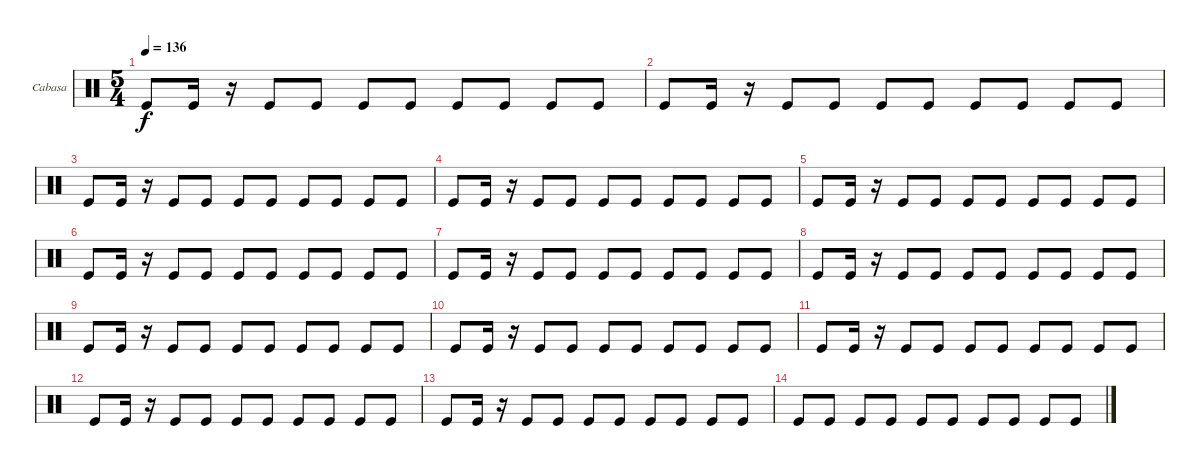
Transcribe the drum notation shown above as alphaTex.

\bracketExtendMode groupsimilarinstruments
\firstSystemTrackNameOrientation horizontal
\otherSystemsTrackNameOrientation horizontal
\track ("Cabasa" "Cabasa") {instrument percussion}
\staff {score}
\articulation defaults
\ts (5 4)
\tempo 136
\clef neutral
\ks c "Kick (hit)".8{dy f} "Kick (hit)".16
r.16 "Kick (hit)".8 "Kick (hit)".8 "Kick (hit)".8 "Kick (hit)".8 "Kick (hit)".8 "Kick (hit)".8 "Kick (hit)".8 "Kick (hit)".8 |
"Kick (hit)".8 "Kick (hit)".16 r.16 "Kick (hit)".8 "Kick (hit)".8 "Kick (hit)".8 "Kick (hit)".8 "Kick (hit)".8 "Kick (hit)".8 "Kick (hit)".8 "Kick (hit)".8 |
"Kick (hit)".8 "Kick (hit)".16 r.16 "Kick (hit)".8 "Kick (hit)".8 "Kick (hit)".8 "Kick (hit)".8 "Kick (hit)".8 "Kick (hit)".8 "Kick (hit)".8 "Kick (hit)".8 |
"Kick (hit)".8 "Kick (hit)".16 r.16 "Kick (hit)".8 "Kick (hit)".8 "Kick (hit)".8 "Kick (hit)".8 "Kick (hit)".8 "Kick (hit)".8 "Kick (hit)".8 "Kick (hit)".8 |
"Kick (hit)".8 "Kick (hit)".16 r.16 "Kick (hit)".8 "Kick (hit)".8 "Kick (hit)".8 "Kick (hit)".8 "Kick (hit)".8 "Kick (hit)".8 "Kick (hit)".8 "Kick (hit)".8 |
"Kick (hit)".8 "Kick (hit)".16 r.16 "Kick (hit)".8 "Kick (hit)".8 "Kick (hit)".8 "Kick (hit)".8 "Kick (hit)".8 "Kick (hit)".8 "Kick (hit)".8 "Kick (hit)".8 |
"Kick (hit)".8 "Kick (hit)".16 r.16 "Kick (hit)".8 "Kick (hit)".8 "Kick (hit)".8 "Kick (hit)".8 "Kick (hit)".8 "Kick (hit)".8 "Kick (hit)".8 "Kick (hit)".8 |
"Kick (hit)".8 "Kick (hit)".16 r.16 "Kick (hit)".8 "Kick (hit)".8 "Kick (hit)".8 "Kick (hit)".8 "Kick (hit)".8 "Kick (hit)".8 "Kick (hit)".8 "Kick (hit)".8 |
"Kick (hit)".8 "Kick (hit)".16 r.16 "Kick (hit)".8 "Kick (hit)".8 "Kick (hit)".8 "Kick (hit)".8 "Kick (hit)".8 "Kick (hit)".8 "Kick (hit)".8 "Kick (hit)".8 |
"Kick (hit)".8 "Kick (hit)".16 r.16 "Kick (hit)".8 "Kick (hit)".8 "Kick (hit)".8 "Kick (hit)".8 "Kick (hit)".8 "Kick (hit)".8 "Kick (hit)".8 "Kick (hit)".8 |
"Kick (hit)".8 "Kick (hit)".16 r.16 "Kick (hit)".8 "Kick (hit)".8 "Kick (hit)".8 "Kick (hit)".8 "Kick (hit)".8 "Kick (hit)".8 "Kick (hit)".8 "Kick (hit)".8 |
"Kick (hit)".8 "Kick (hit)".16 r.16 "Kick (hit)".8 "Kick (hit)".8 "Kick (hit)".8 "Kick (hit)".8 "Kick (hit)".8 "Kick (hit)".8 "Kick (hit)".8 "Kick (hit)".8 |
"Kick (hit)".8 "Kick (hit)".16 r.16 "Kick (hit)".8 "Kick (hit)".8 "Kick (hit)".8 "Kick (hit)".8 "Kick (hit)".8 "Kick (hit)".8 "Kick (hit)".8 "Kick (hit)".8 |
"Kick (hit)".8 "Kick (hit)".8 "Kick (hit)".8 "Kick (hit)".8 "Kick (hit)".8 "Kick (hit)".8 "Kick (hit)".8 "Kick (hit)".8 "Kick (hit)".8 "Kick (hit)".8
